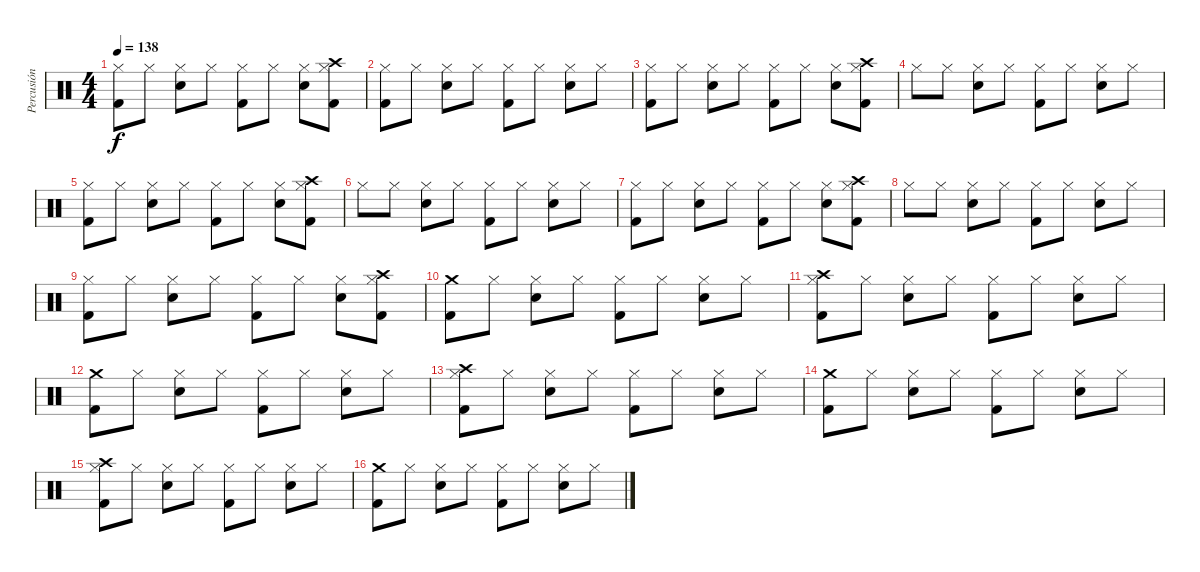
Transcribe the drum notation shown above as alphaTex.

\track ("Percusión" "Percusión") {instrument percussion bank 10}
\staff {score}
\articulation defaults
\ts (4 4)
\tempo 138
\clef neutral
\ks c
("Hi-Hat (closed)" "Kick (hit) 2").8{dy f} "Hi-Hat (closed)".8 ("Hi-Hat (closed)" "Snare (hit) 2").8 "Hi-Hat (closed)".8 ("Hi-Hat (closed)" "Kick (hit) 2").8 "Hi-Hat (closed)".8 ("Hi-Hat (closed)" "Snare (hit) 2").8 ("Hi-Hat (closed)" "Crash high (hit)" "Kick (hit) 2").8 |
("Hi-Hat (closed)" "Kick (hit) 2").8 "Hi-Hat (closed)".8 ("Hi-Hat (closed)" "Snare (hit) 2").8 "Hi-Hat (closed)".8 ("Hi-Hat (closed)" "Kick (hit) 2").8 "Hi-Hat (closed)".8 ("Hi-Hat (closed)" "Snare (hit) 2").8 "Hi-Hat (closed)".8 |
("Hi-Hat (closed)" "Kick (hit) 2").8 "Hi-Hat (closed)".8 ("Hi-Hat (closed)" "Snare (hit) 2").8 "Hi-Hat (closed)".8 ("Hi-Hat (closed)" "Kick (hit) 2").8 "Hi-Hat (closed)".8 ("Hi-Hat (closed)" "Snare (hit) 2").8 ("Hi-Hat (closed)" "Crash high (hit)" "Kick (hit) 2").8 |
"Hi-Hat (closed)".8 "Hi-Hat (closed)".8 ("Hi-Hat (closed)" "Snare (hit) 2").8 "Hi-Hat (closed)".8 ("Hi-Hat (closed)" "Kick (hit) 2").8 "Hi-Hat (closed)".8 ("Hi-Hat (closed)" "Snare (hit) 2").8 "Hi-Hat (closed)".8 |
("Hi-Hat (closed)" "Kick (hit) 2").8 "Hi-Hat (closed)".8 ("Hi-Hat (closed)" "Snare (hit) 2").8 "Hi-Hat (closed)".8 ("Hi-Hat (closed)" "Kick (hit) 2").8 "Hi-Hat (closed)".8 ("Hi-Hat (closed)" "Snare (hit) 2").8 ("Hi-Hat (closed)" "Crash high (hit)" "Kick (hit) 2").8 |
"Hi-Hat (closed)".8 "Hi-Hat (closed)".8 ("Hi-Hat (closed)" "Snare (hit) 2").8 "Hi-Hat (closed)".8 ("Hi-Hat (closed)" "Kick (hit) 2").8 "Hi-Hat (closed)".8 ("Hi-Hat (closed)" "Snare (hit) 2").8 "Hi-Hat (closed)".8 |
("Hi-Hat (closed)" "Kick (hit) 2").8 "Hi-Hat (closed)".8 ("Hi-Hat (closed)" "Snare (hit) 2").8 "Hi-Hat (closed)".8 ("Hi-Hat (closed)" "Kick (hit) 2").8 "Hi-Hat (closed)".8 ("Hi-Hat (closed)" "Snare (hit) 2").8 ("Hi-Hat (closed)" "Crash high (hit)" "Kick (hit) 2").8 |
"Hi-Hat (closed)".8 "Hi-Hat (closed)".8 ("Hi-Hat (closed)" "Snare (hit) 2").8 "Hi-Hat (closed)".8 ("Hi-Hat (closed)" "Kick (hit) 2").8 "Hi-Hat (closed)".8 ("Hi-Hat (closed)" "Snare (hit) 2").8 "Hi-Hat (closed)".8 |
("Hi-Hat (closed)" "Kick (hit) 2").8 "Hi-Hat (closed)".8 ("Hi-Hat (closed)" "Snare (hit) 2").8 "Hi-Hat (closed)".8 ("Hi-Hat (closed)" "Kick (hit) 2").8 "Hi-Hat (closed)".8 ("Hi-Hat (closed)" "Snare (hit) 2").8 ("Hi-Hat (closed)" "Crash high (hit)" "Kick (hit) 2").8 |
("Kick (hit) 2" "Crash medium (hit)").8 "Hi-Hat (closed)".8 ("Hi-Hat (closed)" "Snare (hit) 2").8 "Hi-Hat (closed)".8 ("Hi-Hat (closed)" "Kick (hit) 2").8 "Hi-Hat (closed)".8 ("Hi-Hat (closed)" "Snare (hit) 2").8 "Hi-Hat (closed)".8 |
("Hi-Hat (closed)" "Kick (hit) 2" "Crash high (hit)").8 "Hi-Hat (closed)".8 ("Hi-Hat (closed)" "Snare (hit) 2").8 "Hi-Hat (closed)".8 ("Hi-Hat (closed)" "Kick (hit) 2").8 "Hi-Hat (closed)".8 ("Hi-Hat (closed)" "Snare (hit) 2").8 "Hi-Hat (closed)".8 |
("Kick (hit) 2" "Crash medium (hit)").8 "Hi-Hat (closed)".8 ("Hi-Hat (closed)" "Snare (hit) 2").8 "Hi-Hat (closed)".8 ("Hi-Hat (closed)" "Kick (hit) 2").8 "Hi-Hat (closed)".8 ("Hi-Hat (closed)" "Snare (hit) 2").8 "Hi-Hat (closed)".8 |
("Hi-Hat (closed)" "Kick (hit) 2" "Crash high (hit)").8 "Hi-Hat (closed)".8 ("Hi-Hat (closed)" "Snare (hit) 2").8 "Hi-Hat (closed)".8 ("Hi-Hat (closed)" "Kick (hit) 2").8 "Hi-Hat (closed)".8 ("Hi-Hat (closed)" "Snare (hit) 2").8 "Hi-Hat (closed)".8 |
("Kick (hit) 2" "Crash medium (hit)").8 "Hi-Hat (closed)".8 ("Hi-Hat (closed)" "Snare (hit) 2").8 "Hi-Hat (closed)".8 ("Hi-Hat (closed)" "Kick (hit) 2").8 "Hi-Hat (closed)".8 ("Hi-Hat (closed)" "Snare (hit) 2").8 "Hi-Hat (closed)".8 |
("Hi-Hat (closed)" "Kick (hit) 2" "Crash high (hit)").8 "Hi-Hat (closed)".8 ("Hi-Hat (closed)" "Snare (hit) 2").8 "Hi-Hat (closed)".8 ("Hi-Hat (closed)" "Kick (hit) 2").8 "Hi-Hat (closed)".8 ("Hi-Hat (closed)" "Snare (hit) 2").8 "Hi-Hat (closed)".8 |
("Kick (hit) 2" "Crash medium (hit)").8 "Hi-Hat (closed)".8 ("Hi-Hat (closed)" "Snare (hit) 2").8 "Hi-Hat (closed)".8 ("Hi-Hat (closed)" "Kick (hit) 2").8 "Hi-Hat (closed)".8 ("Hi-Hat (closed)" "Snare (hit) 2").8 "Hi-Hat (closed)".8
